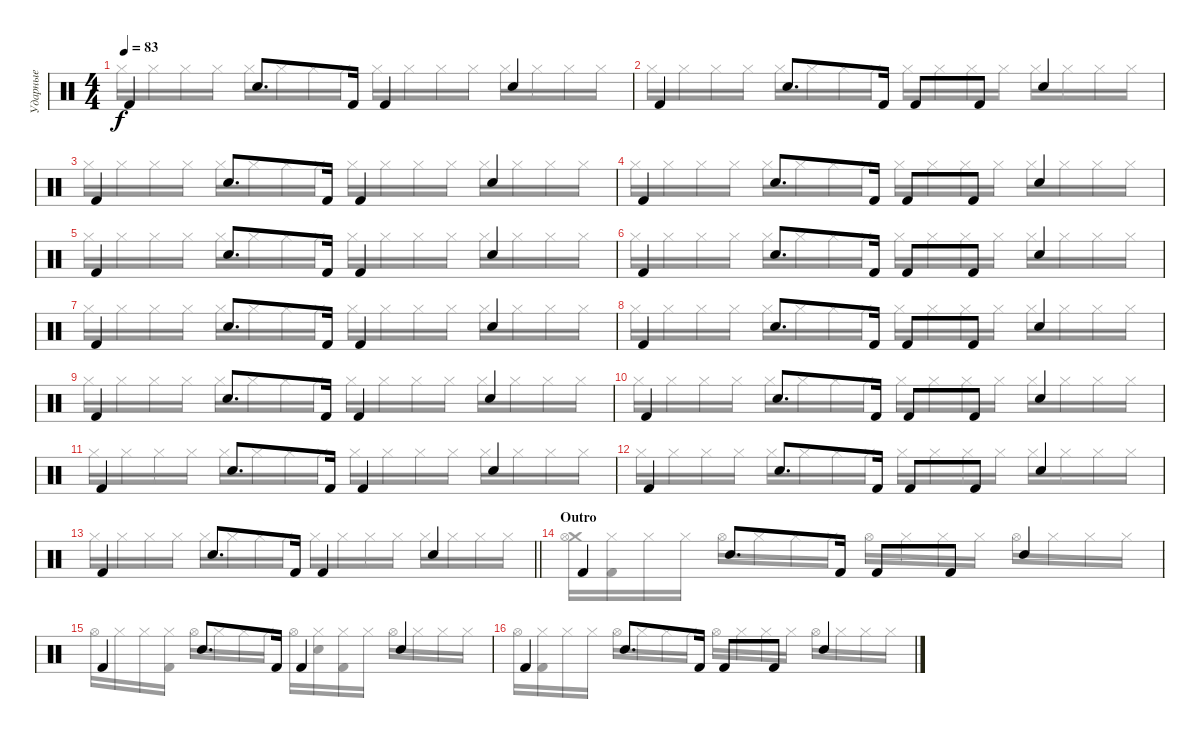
\track ("Ударные" "Ударные") {instrument percussion}
\staff {score}
\articulation defaults
\voice
\ts (4 4)
\tempo 83
\clef neutral
\ks c "Kick (hit) 2".4{dy f} "Snare (hit) 2".8{d} "Kick (hit) 2".16 "Kick (hit) 2".4 "Snare (hit) 2".4
|
"Kick (hit) 2".4 "Snare (hit) 2".8{d} "Kick (hit) 2".16 "Kick (hit) 2".8 "Kick (hit) 2".8 "Snare (hit) 2".4 |
"Kick (hit) 2".4 "Snare (hit) 2".8{d} "Kick (hit) 2".16 "Kick (hit) 2".4 "Snare (hit) 2".4 |
"Kick (hit) 2".4 "Snare (hit) 2".8{d} "Kick (hit) 2".16 "Kick (hit) 2".8 "Kick (hit) 2".8 "Snare (hit) 2".4 |
"Kick (hit) 2".4 "Snare (hit) 2".8{d} "Kick (hit) 2".16 "Kick (hit) 2".4 "Snare (hit) 2".4 |
"Kick (hit) 2".4 "Snare (hit) 2".8{d} "Kick (hit) 2".16 "Kick (hit) 2".8 "Kick (hit) 2".8 "Snare (hit) 2".4 |
"Kick (hit) 2".4 "Snare (hit) 2".8{d} "Kick (hit) 2".16 "Kick (hit) 2".4 "Snare (hit) 2".4 |
"Kick (hit) 2".4 "Snare (hit) 2".8{d} "Kick (hit) 2".16 "Kick (hit) 2".8 "Kick (hit) 2".8 "Snare (hit) 2".4 |
"Kick (hit) 2".4 "Snare (hit) 2".8{d} "Kick (hit) 2".16 "Kick (hit) 2".4 "Snare (hit) 2".4 |
"Kick (hit) 2".4 "Snare (hit) 2".8{d} "Kick (hit) 2".16 "Kick (hit) 2".8 "Kick (hit) 2".8 "Snare (hit) 2".4 |
"Kick (hit) 2".4 "Snare (hit) 2".8{d} "Kick (hit) 2".16 "Kick (hit) 2".4 "Snare (hit) 2".4 |
"Kick (hit) 2".4 "Snare (hit) 2".8{d} "Kick (hit) 2".16 "Kick (hit) 2".8 "Kick (hit) 2".8 "Snare (hit) 2".4 |
\barLineRight lightlight "Kick (hit) 2".4 "Snare (hit) 2".8{d} "Kick (hit) 2".16 "Kick (hit) 2".4 "Snare (hit) 2".4
|
\section ("" "Outro")
"Kick (hit) 2".4 "Snare (hit) 2".8{d} "Kick (hit) 2".16 "Kick (hit) 2".8 "Kick (hit) 2".8 "Snare (hit) 2".4 |
"Kick (hit) 2".4 "Snare (hit) 2".8{d} "Kick (hit) 2".16 "Kick (hit) 2".4 "Snare (hit) 2".4 |
"Kick (hit) 2".4 "Snare (hit) 2".8{d} "Kick (hit) 2".16 "Kick (hit) 2".8 "Kick (hit) 2".8 "Snare (hit) 2".4
\voice
\clef neutral
\ottava regular
\simile none
\ks c "Hi-Hat (closed)".16{dy f} "Hi-Hat (closed)".16 "Hi-Hat (closed)".16 "Hi-Hat (closed)".16 "Hi-Hat (closed)".16 "Hi-Hat (closed)".16 "Hi-Hat (closed)".16 "Hi-Hat (closed)".16 "Hi-Hat (closed)".16 "Hi-Hat (closed)".16 "Hi-Hat (closed)".16 "Hi-Hat (closed)".16 "Hi-Hat (closed)".16 "Hi-Hat (closed)".16 "Hi-Hat (closed)".16 "Hi-Hat (closed)".16
|
"Hi-Hat (closed)".16 "Hi-Hat (closed)".16 "Hi-Hat (closed)".16 "Hi-Hat (closed)".16 "Hi-Hat (closed)".16 "Hi-Hat (closed)".16 "Hi-Hat (closed)".16 "Hi-Hat (closed)".16 "Hi-Hat (closed)".16 "Hi-Hat (closed)".16 "Hi-Hat (closed)".16 "Hi-Hat (closed)".16 "Hi-Hat (closed)".16 "Hi-Hat (closed)".16 "Hi-Hat (closed)".16 "Hi-Hat (closed)".16 |
"Hi-Hat (closed)".16 "Hi-Hat (closed)".16 "Hi-Hat (closed)".16 "Hi-Hat (closed)".16 "Hi-Hat (closed)".16 "Hi-Hat (closed)".16 "Hi-Hat (closed)".16 "Hi-Hat (closed)".16 "Hi-Hat (closed)".16 "Hi-Hat (closed)".16 "Hi-Hat (closed)".16 "Hi-Hat (closed)".16 "Hi-Hat (closed)".16 "Hi-Hat (closed)".16 "Hi-Hat (closed)".16 "Hi-Hat (closed)".16 |
"Hi-Hat (closed)".16 "Hi-Hat (closed)".16 "Hi-Hat (closed)".16 "Hi-Hat (closed)".16 "Hi-Hat (closed)".16 "Hi-Hat (closed)".16 "Hi-Hat (closed)".16 "Hi-Hat (closed)".16 "Hi-Hat (closed)".16 "Hi-Hat (closed)".16 "Hi-Hat (closed)".16 "Hi-Hat (closed)".16 "Hi-Hat (closed)".16 "Hi-Hat (closed)".16 "Hi-Hat (closed)".16 "Hi-Hat (closed)".16 |
"Hi-Hat (closed)".16 "Hi-Hat (closed)".16 "Hi-Hat (closed)".16 "Hi-Hat (closed)".16 "Hi-Hat (closed)".16 "Hi-Hat (closed)".16 "Hi-Hat (closed)".16 "Hi-Hat (closed)".16 "Hi-Hat (closed)".16 "Hi-Hat (closed)".16 "Hi-Hat (closed)".16 "Hi-Hat (closed)".16 "Hi-Hat (closed)".16 "Hi-Hat (closed)".16 "Hi-Hat (closed)".16 "Hi-Hat (closed)".16 |
"Hi-Hat (closed)".16 "Hi-Hat (closed)".16 "Hi-Hat (closed)".16 "Hi-Hat (closed)".16 "Hi-Hat (closed)".16 "Hi-Hat (closed)".16 "Hi-Hat (closed)".16 "Hi-Hat (closed)".16 "Hi-Hat (closed)".16 "Hi-Hat (closed)".16 "Hi-Hat (closed)".16 "Hi-Hat (closed)".16 "Hi-Hat (closed)".16 "Hi-Hat (closed)".16 "Hi-Hat (closed)".16 "Hi-Hat (closed)".16 |
"Hi-Hat (closed)".16 "Hi-Hat (closed)".16 "Hi-Hat (closed)".16 "Hi-Hat (closed)".16 "Hi-Hat (closed)".16 "Hi-Hat (closed)".16 "Hi-Hat (closed)".16 "Hi-Hat (closed)".16 "Hi-Hat (closed)".16 "Hi-Hat (closed)".16 "Hi-Hat (closed)".16 "Hi-Hat (closed)".16 "Hi-Hat (closed)".16 "Hi-Hat (closed)".16 "Hi-Hat (closed)".16 "Hi-Hat (closed)".16 |
"Hi-Hat (closed)".16 "Hi-Hat (closed)".16 "Hi-Hat (closed)".16 "Hi-Hat (closed)".16 "Hi-Hat (closed)".16 "Hi-Hat (closed)".16 "Hi-Hat (closed)".16 "Hi-Hat (closed)".16 "Hi-Hat (closed)".16 "Hi-Hat (closed)".16 "Hi-Hat (closed)".16 "Hi-Hat (closed)".16 "Hi-Hat (closed)".16 "Hi-Hat (closed)".16 "Hi-Hat (closed)".16 "Hi-Hat (closed)".16 |
"Hi-Hat (closed)".16 "Hi-Hat (closed)".16 "Hi-Hat (closed)".16 "Hi-Hat (closed)".16 "Hi-Hat (closed)".16 "Hi-Hat (closed)".16 "Hi-Hat (closed)".16 "Hi-Hat (closed)".16 "Hi-Hat (closed)".16 "Hi-Hat (closed)".16 "Hi-Hat (closed)".16 "Hi-Hat (closed)".16 "Hi-Hat (closed)".16 "Hi-Hat (closed)".16 "Hi-Hat (closed)".16 "Hi-Hat (closed)".16 |
"Hi-Hat (closed)".16 "Hi-Hat (closed)".16 "Hi-Hat (closed)".16 "Hi-Hat (closed)".16 "Hi-Hat (closed)".16 "Hi-Hat (closed)".16 "Hi-Hat (closed)".16 "Hi-Hat (closed)".16 "Hi-Hat (closed)".16 "Hi-Hat (closed)".16 "Hi-Hat (closed)".16 "Hi-Hat (closed)".16 "Hi-Hat (closed)".16 "Hi-Hat (closed)".16 "Hi-Hat (closed)".16 "Hi-Hat (closed)".16 |
"Hi-Hat (closed)".16 "Hi-Hat (closed)".16 "Hi-Hat (closed)".16 "Hi-Hat (closed)".16 "Hi-Hat (closed)".16 "Hi-Hat (closed)".16 "Hi-Hat (closed)".16 "Hi-Hat (closed)".16 "Hi-Hat (closed)".16 "Hi-Hat (closed)".16 "Hi-Hat (closed)".16 "Hi-Hat (closed)".16 "Hi-Hat (closed)".16 "Hi-Hat (closed)".16 "Hi-Hat (closed)".16 "Hi-Hat (closed)".16 |
"Hi-Hat (closed)".16 "Hi-Hat (closed)".16 "Hi-Hat (closed)".16 "Hi-Hat (closed)".16 "Hi-Hat (closed)".16 "Hi-Hat (closed)".16 "Hi-Hat (closed)".16 "Hi-Hat (closed)".16 "Hi-Hat (closed)".16 "Hi-Hat (closed)".16 "Hi-Hat (closed)".16 "Hi-Hat (closed)".16 "Hi-Hat (closed)".16 "Hi-Hat (closed)".16 "Hi-Hat (closed)".16 "Hi-Hat (closed)".16 |
\barLineRight lightlight "Hi-Hat (closed)".16 "Hi-Hat (closed)".16 "Hi-Hat (closed)".16 "Hi-Hat (closed)".16 "Hi-Hat (closed)".16 "Hi-Hat (closed)".16 "Hi-Hat (closed)".16 "Hi-Hat (closed)".16 "Hi-Hat (closed)".16 "Hi-Hat (closed)".16 "Hi-Hat (closed)".16 "Hi-Hat (closed)".16 "Hi-Hat (closed)".16 "Hi-Hat (closed)".16 "Hi-Hat (closed)".16 "Hi-Hat (closed)".16
|
("Crash medium (hit)" "Hi-Hat (open)").16 ("Hi-Hat (closed)" "Kick (hit) 2").16 "Hi-Hat (closed)".16 "Hi-Hat (closed)".16 "Hi-Hat (open)".16 "Hi-Hat (closed)".16 "Hi-Hat (closed)".16 "Hi-Hat (closed)".16 "Hi-Hat (open)".16 "Hi-Hat (closed)".16 "Hi-Hat (closed)".16 "Hi-Hat (closed)".16 "Hi-Hat (open)".16 "Hi-Hat (closed)".16 "Hi-Hat (closed)".16 "Hi-Hat (closed)".16 |
"Hi-Hat (open)".16 "Hi-Hat (closed)".16 "Hi-Hat (closed)".16 ("Hi-Hat (closed)" "Kick (hit) 2").16 "Hi-Hat (open)".16 "Hi-Hat (closed)".16 "Hi-Hat (closed)".16 "Hi-Hat (closed)".16 "Hi-Hat (open)".16 ("Hi-Hat (closed)" "Snare (hit) 2").16 ("Hi-Hat (closed)" "Kick (hit) 2").16 "Hi-Hat (closed)".16 "Hi-Hat (open)".16 "Hi-Hat (closed)".16 "Hi-Hat (closed)".16 "Hi-Hat (closed)".16 |
"Hi-Hat (open)".16 ("Hi-Hat (closed)" "Kick (hit) 2").16 "Hi-Hat (closed)".16 "Hi-Hat (closed)".16 "Hi-Hat (open)".16 "Hi-Hat (closed)".16 "Hi-Hat (closed)".16 "Hi-Hat (closed)".16 "Hi-Hat (open)".16 "Hi-Hat (closed)".16 "Hi-Hat (closed)".16 "Hi-Hat (closed)".16 "Hi-Hat (open)".16 "Hi-Hat (closed)".16 "Hi-Hat (closed)".16 "Hi-Hat (closed)".16
